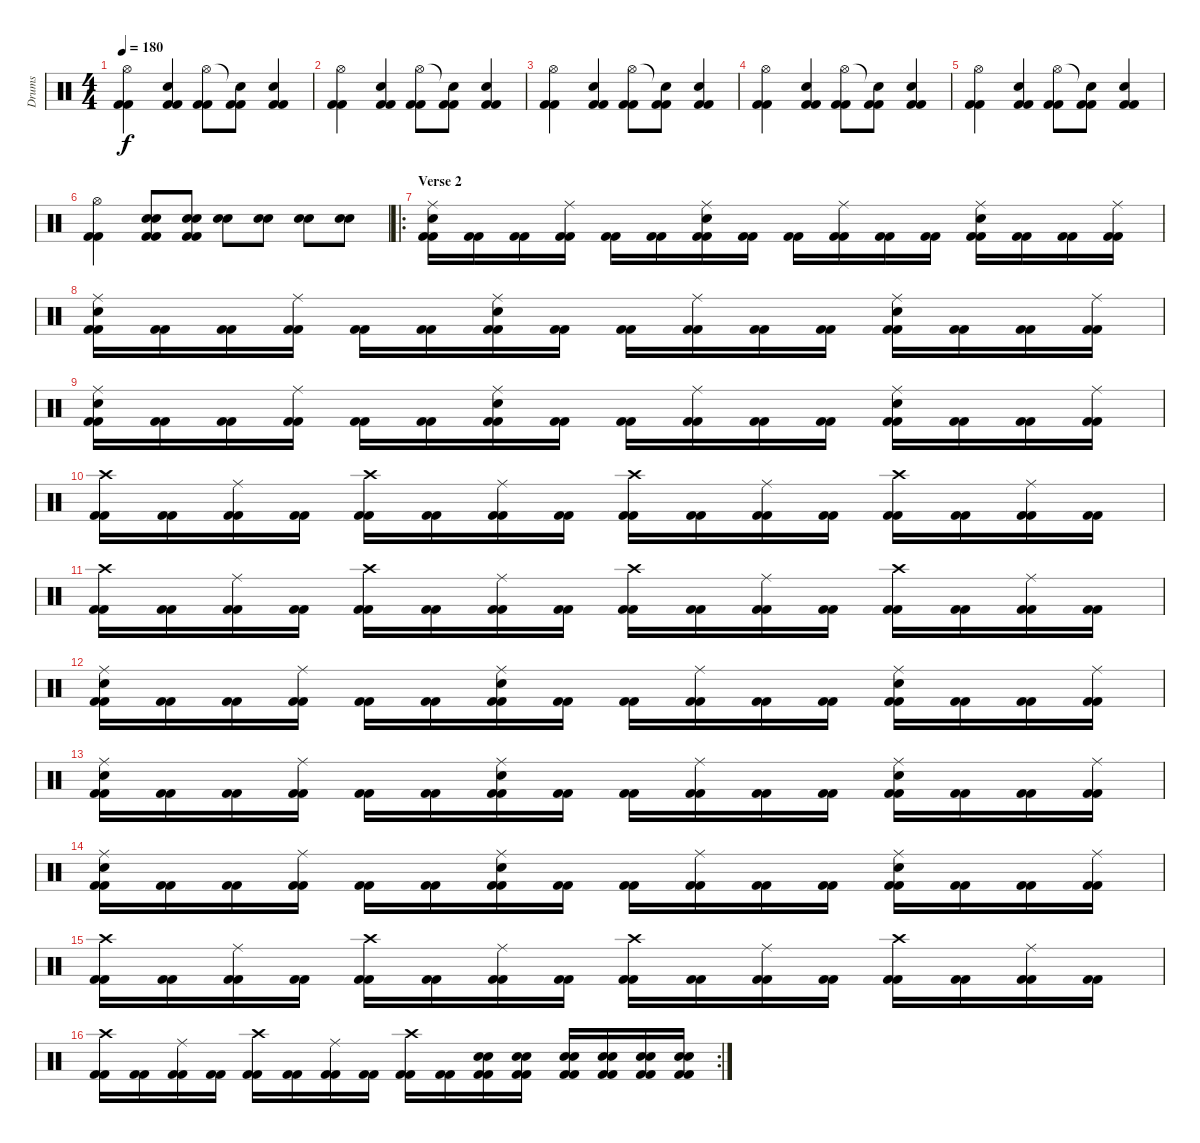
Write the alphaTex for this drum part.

\track ("Drums" "Drums") {instrument percussion}
\staff {score}
\articulation defaults
\ts (4 4)
\tempo 180
\clef neutral
\ks c
("Hi-Hat (open)" "Kick (hit) 2" "Kick (hit) 2").4{dy f} ("Snare (hit) 2" "Kick (hit) 2" "Kick (hit) 2").4 ("Hi-Hat (open)" "Kick (hit) 2" "Kick (hit) 2").8 ("Snare (hit)"{t} "Kick (hit) 2" "Kick (hit) 2").8 ("Snare (hit) 2" "Kick (hit) 2" "Kick (hit) 2").4 |
("Hi-Hat (open)" "Kick (hit) 2" "Kick (hit) 2").4 ("Snare (hit) 2" "Kick (hit) 2" "Kick (hit) 2").4 ("Hi-Hat (open)" "Kick (hit) 2" "Kick (hit) 2").8 ("Snare (hit)"{t} "Kick (hit) 2" "Kick (hit) 2").8 ("Snare (hit) 2" "Kick (hit) 2" "Kick (hit) 2").4 |
("Hi-Hat (open)" "Kick (hit) 2" "Kick (hit) 2").4 ("Snare (hit) 2" "Kick (hit) 2" "Kick (hit) 2").4 ("Hi-Hat (open)" "Kick (hit) 2" "Kick (hit) 2").8 ("Snare (hit)"{t} "Kick (hit) 2" "Kick (hit) 2").8 ("Snare (hit) 2" "Kick (hit) 2" "Kick (hit) 2").4 |
("Hi-Hat (open)" "Kick (hit) 2" "Kick (hit) 2").4 ("Snare (hit) 2" "Kick (hit) 2" "Kick (hit) 2").4 ("Hi-Hat (open)" "Kick (hit) 2" "Kick (hit) 2").8 ("Snare (hit)"{t} "Kick (hit) 2" "Kick (hit) 2").8 ("Snare (hit) 2" "Kick (hit) 2" "Kick (hit) 2").4 |
("Hi-Hat (open)" "Kick (hit) 2" "Kick (hit) 2").4 ("Snare (hit) 2" "Kick (hit) 2" "Kick (hit) 2").4 ("Hi-Hat (open)" "Kick (hit) 2" "Kick (hit) 2").8 ("Snare (hit)"{t} "Kick (hit) 2" "Kick (hit) 2").8 ("Snare (hit) 2" "Kick (hit) 2" "Kick (hit) 2").4 |
("Hi-Hat (open)" "Kick (hit) 2" "Kick (hit) 2").4 ("Snare (hit) 2" "Snare (hit) 2" "Kick (hit) 2" "Kick (hit) 2").8 ("Snare (hit) 2" "Snare (hit) 2" "Kick (hit) 2" "Kick (hit) 2").8 ("Snare (hit) 2" "Snare (hit) 2").8 ("Snare (hit) 2" "Snare (hit) 2").8 ("Snare (hit) 2" "Snare (hit) 2").8 ("Snare (hit) 2" "Snare (hit) 2").8 |
\ro
\section ("" "Verse 2")
("Kick (hit) 2" "Kick (hit) 2" "Electric Snare (hit)" "Ride (middle)").16 ("Kick (hit) 2" "Kick (hit) 2").16 ("Kick (hit) 2" "Kick (hit) 2").16 ("Kick (hit) 2" "Kick (hit) 2" "Ride (middle)").16 ("Kick (hit) 2" "Kick (hit) 2").16 ("Kick (hit) 2" "Kick (hit) 2").16 ("Kick (hit) 2" "Kick (hit) 2" "Electric Snare (hit)" "Ride (middle)").16 ("Kick (hit) 2" "Kick (hit) 2").16 ("Kick (hit) 2" "Kick (hit) 2").16 ("Kick (hit) 2" "Kick (hit) 2" "Ride (middle)").16 ("Kick (hit) 2" "Kick (hit) 2").16 ("Kick (hit) 2" "Kick (hit) 2").16 ("Kick (hit) 2" "Kick (hit) 2" "Electric Snare (hit)" "Ride (middle)").16 ("Kick (hit) 2" "Kick (hit) 2").16 ("Kick (hit) 2" "Kick (hit) 2").16 ("Kick (hit) 2" "Kick (hit) 2" "Ride (middle)").16 |
("Kick (hit) 2" "Kick (hit) 2" "Electric Snare (hit)" "Ride (middle)").16 ("Kick (hit) 2" "Kick (hit) 2").16 ("Kick (hit) 2" "Kick (hit) 2").16 ("Kick (hit) 2" "Kick (hit) 2" "Ride (middle)").16 ("Kick (hit) 2" "Kick (hit) 2").16 ("Kick (hit) 2" "Kick (hit) 2").16 ("Kick (hit) 2" "Kick (hit) 2" "Electric Snare (hit)" "Ride (middle)").16 ("Kick (hit) 2" "Kick (hit) 2").16 ("Kick (hit) 2" "Kick (hit) 2").16 ("Kick (hit) 2" "Kick (hit) 2" "Ride (middle)").16 ("Kick (hit) 2" "Kick (hit) 2").16 ("Kick (hit) 2" "Kick (hit) 2").16 ("Kick (hit) 2" "Kick (hit) 2" "Electric Snare (hit)" "Ride (middle)").16 ("Kick (hit) 2" "Kick (hit) 2").16 ("Kick (hit) 2" "Kick (hit) 2").16 ("Kick (hit) 2" "Kick (hit) 2" "Ride (middle)").16 |
("Kick (hit) 2" "Kick (hit) 2" "Electric Snare (hit)" "Ride (middle)").16 ("Kick (hit) 2" "Kick (hit) 2").16 ("Kick (hit) 2" "Kick (hit) 2").16 ("Kick (hit) 2" "Kick (hit) 2" "Ride (middle)").16 ("Kick (hit) 2" "Kick (hit) 2").16 ("Kick (hit) 2" "Kick (hit) 2").16 ("Kick (hit) 2" "Kick (hit) 2" "Electric Snare (hit)" "Ride (middle)").16 ("Kick (hit) 2" "Kick (hit) 2").16 ("Kick (hit) 2" "Kick (hit) 2").16 ("Kick (hit) 2" "Kick (hit) 2" "Ride (middle)").16 ("Kick (hit) 2" "Kick (hit) 2").16 ("Kick (hit) 2" "Kick (hit) 2").16 ("Kick (hit) 2" "Kick (hit) 2" "Electric Snare (hit)" "Ride (middle)").16 ("Kick (hit) 2" "Kick (hit) 2").16 ("Kick (hit) 2" "Kick (hit) 2").16 ("Kick (hit) 2" "Kick (hit) 2" "Ride (middle)").16 |
("Kick (hit) 2" "Kick (hit) 2" "Crash high (hit)").16 ("Kick (hit) 2" "Kick (hit) 2").16 ("Kick (hit) 2" "Kick (hit) 2" "Ride (middle)").16 ("Kick (hit) 2" "Kick (hit) 2").16 ("Kick (hit) 2" "Kick (hit) 2" "Crash high (hit)").16 ("Kick (hit) 2" "Kick (hit) 2").16 ("Kick (hit) 2" "Kick (hit) 2" "Ride (middle)").16 ("Kick (hit) 2" "Kick (hit) 2").16 ("Kick (hit) 2" "Kick (hit) 2" "Crash high (hit)").16 ("Kick (hit) 2" "Kick (hit) 2").16 ("Kick (hit) 2" "Kick (hit) 2" "Ride (middle)").16 ("Kick (hit) 2" "Kick (hit) 2").16 ("Kick (hit) 2" "Kick (hit) 2" "Crash high (hit)").16 ("Kick (hit) 2" "Kick (hit) 2").16 ("Kick (hit) 2" "Kick (hit) 2" "Ride (middle)").16 ("Kick (hit) 2" "Kick (hit) 2").16 |
("Kick (hit) 2" "Kick (hit) 2" "Crash high (hit)").16 ("Kick (hit) 2" "Kick (hit) 2").16 ("Kick (hit) 2" "Kick (hit) 2" "Ride (middle)").16 ("Kick (hit) 2" "Kick (hit) 2").16 ("Kick (hit) 2" "Kick (hit) 2" "Crash high (hit)").16 ("Kick (hit) 2" "Kick (hit) 2").16 ("Kick (hit) 2" "Kick (hit) 2" "Ride (middle)").16 ("Kick (hit) 2" "Kick (hit) 2").16 ("Kick (hit) 2" "Kick (hit) 2" "Crash high (hit)").16 ("Kick (hit) 2" "Kick (hit) 2").16 ("Kick (hit) 2" "Kick (hit) 2" "Ride (middle)").16 ("Kick (hit) 2" "Kick (hit) 2").16 ("Kick (hit) 2" "Kick (hit) 2" "Crash high (hit)").16 ("Kick (hit) 2" "Kick (hit) 2").16 ("Kick (hit) 2" "Kick (hit) 2" "Ride (middle)").16 ("Kick (hit) 2" "Kick (hit) 2").16 |
("Kick (hit) 2" "Kick (hit) 2" "Electric Snare (hit)" "Ride (middle)").16 ("Kick (hit) 2" "Kick (hit) 2").16 ("Kick (hit) 2" "Kick (hit) 2").16 ("Kick (hit) 2" "Kick (hit) 2" "Ride (middle)").16 ("Kick (hit) 2" "Kick (hit) 2").16 ("Kick (hit) 2" "Kick (hit) 2").16 ("Kick (hit) 2" "Kick (hit) 2" "Electric Snare (hit)" "Ride (middle)").16 ("Kick (hit) 2" "Kick (hit) 2").16 ("Kick (hit) 2" "Kick (hit) 2").16 ("Kick (hit) 2" "Kick (hit) 2" "Ride (middle)").16 ("Kick (hit) 2" "Kick (hit) 2").16 ("Kick (hit) 2" "Kick (hit) 2").16 ("Kick (hit) 2" "Kick (hit) 2" "Electric Snare (hit)" "Ride (middle)").16 ("Kick (hit) 2" "Kick (hit) 2").16 ("Kick (hit) 2" "Kick (hit) 2").16 ("Kick (hit) 2" "Kick (hit) 2" "Ride (middle)").16 |
("Kick (hit) 2" "Kick (hit) 2" "Electric Snare (hit)" "Ride (middle)").16 ("Kick (hit) 2" "Kick (hit) 2").16 ("Kick (hit) 2" "Kick (hit) 2").16 ("Kick (hit) 2" "Kick (hit) 2" "Ride (middle)").16 ("Kick (hit) 2" "Kick (hit) 2").16 ("Kick (hit) 2" "Kick (hit) 2").16 ("Kick (hit) 2" "Kick (hit) 2" "Electric Snare (hit)" "Ride (middle)").16 ("Kick (hit) 2" "Kick (hit) 2").16 ("Kick (hit) 2" "Kick (hit) 2").16 ("Kick (hit) 2" "Kick (hit) 2" "Ride (middle)").16 ("Kick (hit) 2" "Kick (hit) 2").16 ("Kick (hit) 2" "Kick (hit) 2").16 ("Kick (hit) 2" "Kick (hit) 2" "Electric Snare (hit)" "Ride (middle)").16 ("Kick (hit) 2" "Kick (hit) 2").16 ("Kick (hit) 2" "Kick (hit) 2").16 ("Kick (hit) 2" "Kick (hit) 2" "Ride (middle)").16 |
("Kick (hit) 2" "Kick (hit) 2" "Electric Snare (hit)" "Ride (middle)").16 ("Kick (hit) 2" "Kick (hit) 2").16 ("Kick (hit) 2" "Kick (hit) 2").16 ("Kick (hit) 2" "Kick (hit) 2" "Ride (middle)").16 ("Kick (hit) 2" "Kick (hit) 2").16 ("Kick (hit) 2" "Kick (hit) 2").16 ("Kick (hit) 2" "Kick (hit) 2" "Electric Snare (hit)" "Ride (middle)").16 ("Kick (hit) 2" "Kick (hit) 2").16 ("Kick (hit) 2" "Kick (hit) 2").16 ("Kick (hit) 2" "Kick (hit) 2" "Ride (middle)").16 ("Kick (hit) 2" "Kick (hit) 2").16 ("Kick (hit) 2" "Kick (hit) 2").16 ("Kick (hit) 2" "Kick (hit) 2" "Electric Snare (hit)" "Ride (middle)").16 ("Kick (hit) 2" "Kick (hit) 2").16 ("Kick (hit) 2" "Kick (hit) 2").16 ("Kick (hit) 2" "Kick (hit) 2" "Ride (middle)").16 |
("Kick (hit) 2" "Kick (hit) 2" "Crash high (hit)").16 ("Kick (hit) 2" "Kick (hit) 2").16 ("Kick (hit) 2" "Kick (hit) 2" "Ride (middle)").16 ("Kick (hit) 2" "Kick (hit) 2").16 ("Kick (hit) 2" "Kick (hit) 2" "Crash high (hit)").16 ("Kick (hit) 2" "Kick (hit) 2").16 ("Kick (hit) 2" "Kick (hit) 2" "Ride (middle)").16 ("Kick (hit) 2" "Kick (hit) 2").16 ("Kick (hit) 2" "Kick (hit) 2" "Crash high (hit)").16 ("Kick (hit) 2" "Kick (hit) 2").16 ("Kick (hit) 2" "Kick (hit) 2" "Ride (middle)").16 ("Kick (hit) 2" "Kick (hit) 2").16 ("Kick (hit) 2" "Kick (hit) 2" "Crash high (hit)").16 ("Kick (hit) 2" "Kick (hit) 2").16 ("Kick (hit) 2" "Kick (hit) 2" "Ride (middle)").16 ("Kick (hit) 2" "Kick (hit) 2").16 |
\rc 2
("Kick (hit) 2" "Kick (hit) 2" "Crash high (hit)").16 ("Kick (hit) 2" "Kick (hit) 2").16 ("Kick (hit) 2" "Kick (hit) 2" "Ride (middle)").16 ("Kick (hit) 2" "Kick (hit) 2").16 ("Kick (hit) 2" "Kick (hit) 2" "Crash high (hit)").16 ("Kick (hit) 2" "Kick (hit) 2").16 ("Kick (hit) 2" "Kick (hit) 2" "Ride (middle)").16 ("Kick (hit) 2" "Kick (hit) 2").16 ("Kick (hit) 2" "Kick (hit) 2" "Crash high (hit)").16 ("Kick (hit) 2" "Kick (hit) 2").16 ("Kick (hit) 2" "Kick (hit) 2" "Snare (hit) 2" "Snare (hit) 2").16 ("Kick (hit) 2" "Kick (hit) 2" "Snare (hit) 2" "Snare (hit) 2").16 ("Kick (hit) 2" "Kick (hit) 2" "Snare (hit) 2" "Snare (hit) 2").16 ("Kick (hit) 2" "Kick (hit) 2" "Snare (hit) 2" "Snare (hit) 2").16 ("Kick (hit) 2" "Kick (hit) 2" "Snare (hit) 2" "Snare (hit) 2").16 ("Kick (hit) 2" "Kick (hit) 2" "Snare (hit) 2" "Snare (hit) 2").16
